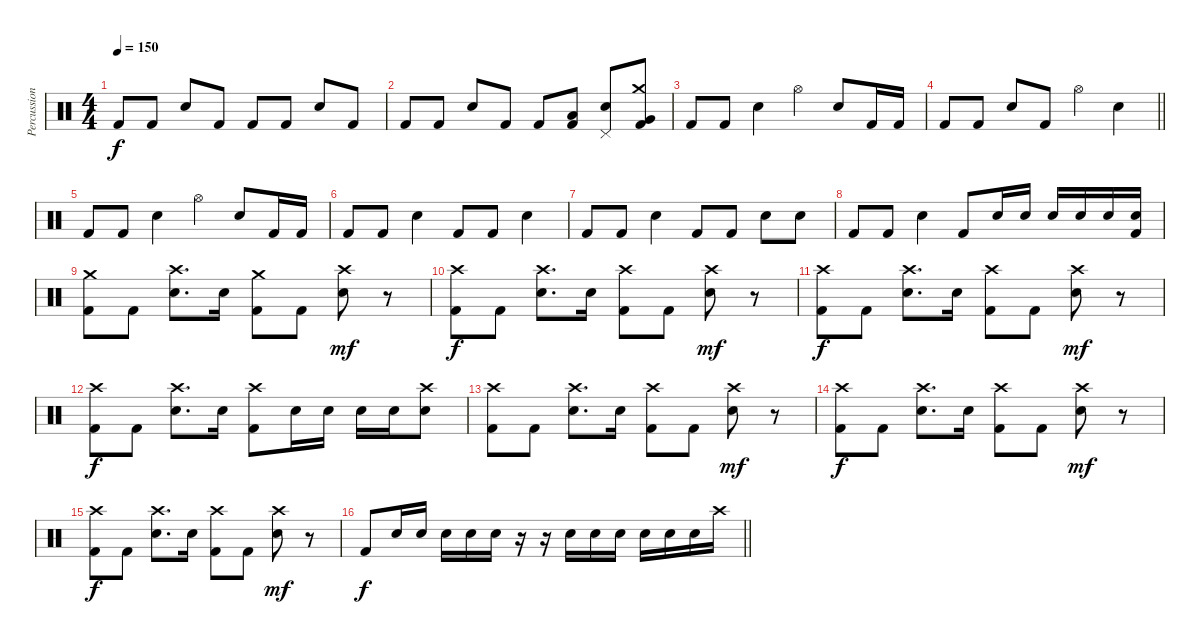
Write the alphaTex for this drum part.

\track ("Percussion" "Percussion") {instrument percussion}
\staff {score}
\articulation defaults
\ts (4 4)
\tempo 150
\clef neutral
\ks c "Kick (hit) 2".8{dy f} "Kick (hit) 2".8 "Electric Snare (hit)".8 "Kick (hit) 2".8 "Kick (hit) 2".8 "Kick (hit) 2".8 "Electric Snare (hit)".8 "Kick (hit) 2".8
|
"Kick (hit) 2".8 "Kick (hit) 2".8 "Electric Snare (hit)".8 "Kick (hit) 2".8 "Kick (hit) 2".8 ("Kick (hit) 2" "Low Tom (hit)").8 ("Electric Snare (hit)" "Pedal Hi-Hat (hit)").8 ("Kick (hit) 2" "Crash medium (hit)" "Very Low Tom (hit)").8 |
"Kick (hit) 2".8 "Kick (hit) 2".8 "Electric Snare (hit)".4 "Hi-Hat (open)".4 "Electric Snare (hit)".8 "Kick (hit) 2".16 "Kick (hit) 2".16 |
\barLineRight lightlight "Kick (hit) 2".8 "Kick (hit) 2".8 "Electric Snare (hit)".8 "Kick (hit) 2".8 "Hi-Hat (open)".4 "Electric Snare (hit)".4
|
"Kick (hit) 2".8 "Kick (hit) 2".8 "Electric Snare (hit)".4 "Hi-Hat (open)".4 "Electric Snare (hit)".8 "Kick (hit) 2".16 "Kick (hit) 2".16 |
"Kick (hit) 2".8 "Kick (hit) 2".8 "Electric Snare (hit)".4 "Kick (hit) 2".8 "Kick (hit) 2".8 "Electric Snare (hit)".4 |
"Kick (hit) 2".8 "Kick (hit) 2".8 "Electric Snare (hit)".4 "Kick (hit) 2".8 "Kick (hit) 2".8 "Electric Snare (hit)".8 "Electric Snare (hit)".8 |
"Kick (hit) 2".8 "Kick (hit) 2".8 "Electric Snare (hit)".4 "Kick (hit) 2".8 "Electric Snare (hit)".16 "Electric Snare (hit)".16 "Electric Snare (hit)".16 "Electric Snare (hit)".16 "Electric Snare (hit)".16 ("Kick (hit) 2" "Electric Snare (hit)").16 |
("Kick (hit) 2" "Crash medium (hit)").8 "Kick (hit) 2".8 ("Electric Snare (hit)" "Crash high (hit)").8{d} "Electric Snare (hit)".16 ("Kick (hit) 2" "Crash medium (hit)").8 "Kick (hit) 2".8 ("Electric Snare (hit)" "Crash high (hit)").8{dy mf} r.8 |
("Kick (hit) 2" "Crash high (hit)").8{dy f} "Kick (hit) 2".8 ("Electric Snare (hit)" "Crash high (hit)").8{d} "Electric Snare (hit)".16 ("Kick (hit) 2" "Crash high (hit)").8 "Kick (hit) 2".8 ("Electric Snare (hit)" "Crash high (hit)").8{dy mf} r.8 |
("Kick (hit) 2" "Crash high (hit)").8{dy f} "Kick (hit) 2".8 ("Electric Snare (hit)" "Crash high (hit)").8{d} "Electric Snare (hit)".16 ("Kick (hit) 2" "Crash high (hit)").8 "Kick (hit) 2".8 ("Electric Snare (hit)" "Crash high (hit)").8{dy mf} r.8 |
("Kick (hit) 2" "Crash high (hit)").8{dy f} "Kick (hit) 2".8 ("Electric Snare (hit)" "Crash high (hit)").8{d} "Electric Snare (hit)".16 ("Kick (hit) 2" "Crash high (hit)").8 "Electric Snare (hit)".16 "Electric Snare (hit)".16 "Electric Snare (hit)".16 "Electric Snare (hit)".16 ("Electric Snare (hit)" "Crash high (hit)").8 |
("Kick (hit) 2" "Crash high (hit)").8 "Kick (hit) 2".8 ("Electric Snare (hit)" "Crash high (hit)").8{d} "Electric Snare (hit)".16 ("Kick (hit) 2" "Crash high (hit)").8 "Kick (hit) 2".8 ("Electric Snare (hit)" "Crash high (hit)").8{dy mf} r.8 |
("Kick (hit) 2" "Crash high (hit)").8{dy f} "Kick (hit) 2".8 ("Electric Snare (hit)" "Crash high (hit)").8{d} "Electric Snare (hit)".16 ("Kick (hit) 2" "Crash high (hit)").8 "Kick (hit) 2".8 ("Electric Snare (hit)" "Crash high (hit)").8{dy mf} r.8 |
("Kick (hit) 2" "Crash high (hit)").8{dy f} "Kick (hit) 2".8 ("Electric Snare (hit)" "Crash high (hit)").8{d} "Electric Snare (hit)".16 ("Kick (hit) 2" "Crash high (hit)").8 "Kick (hit) 2".8 ("Electric Snare (hit)" "Crash high (hit)").8{dy mf} r.8 |
\barLineRight lightlight "Kick (hit) 2".8{dy f} "Electric Snare (hit)".16 "Electric Snare (hit)".16 "Electric Snare (hit)".16 "Electric Snare (hit)".16 "Electric Snare (hit)".16
r.16 r.16 "Electric Snare (hit)".16 "Electric Snare (hit)".16 "Electric Snare (hit)".16 "Electric Snare (hit)".16 "Electric Snare (hit)".16 "Electric Snare (hit)".16 "Crash high (hit)".16
